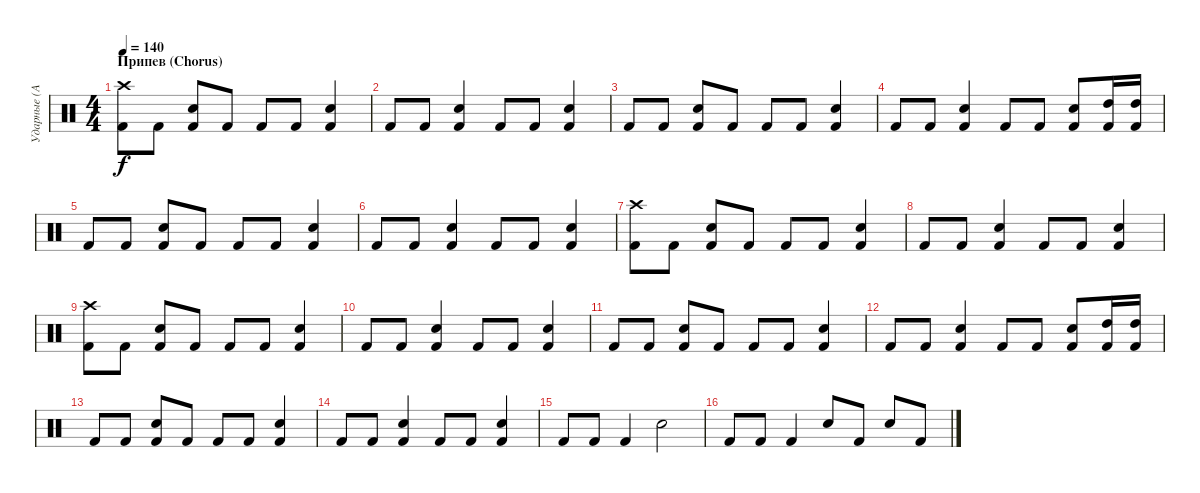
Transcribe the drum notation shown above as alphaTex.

\track ("Ударные (Алексей Барзилович)" "Ударные (А") {instrument percussion}
\staff {score}
\articulation defaults
\ts (4 4)
\section ("" "Припев (Chorus)")
\tempo 140
\clef neutral
\ks c
("Crash high (hit)" "Kick (hit) 2").8{dy f} "Kick (hit) 2".8 ("Electric Snare (hit)" "Kick (hit) 2").8 "Kick (hit) 2".8 "Kick (hit) 2".8 "Kick (hit) 2".8 ("Electric Snare (hit)" "Kick (hit) 2").4 |
"Kick (hit) 2".8 "Kick (hit) 2".8 ("Electric Snare (hit)" "Kick (hit) 2").4 "Kick (hit) 2".8 "Kick (hit) 2".8 ("Electric Snare (hit)" "Kick (hit) 2").4 |
"Kick (hit) 2".8 "Kick (hit) 2".8 ("Electric Snare (hit)" "Kick (hit) 2").8 "Kick (hit) 2".8 "Kick (hit) 2".8 "Kick (hit) 2".8 ("Electric Snare (hit)" "Kick (hit) 2").4 |
"Kick (hit) 2".8 "Kick (hit) 2".8 ("Electric Snare (hit)" "Kick (hit) 2").4 "Kick (hit) 2".8 "Kick (hit) 2".8 ("Electric Snare (hit)" "Kick (hit) 2").8 ("High Tom (hit)" "Kick (hit) 2").16 ("High Tom (hit)" "Kick (hit) 2").16 |
"Kick (hit) 2".8 "Kick (hit) 2".8 ("Electric Snare (hit)" "Kick (hit) 2").8 "Kick (hit) 2".8 "Kick (hit) 2".8 "Kick (hit) 2".8 ("Electric Snare (hit)" "Kick (hit) 2").4 |
"Kick (hit) 2".8 "Kick (hit) 2".8 ("Electric Snare (hit)" "Kick (hit) 2").4 "Kick (hit) 2".8 "Kick (hit) 2".8 ("Electric Snare (hit)" "Kick (hit) 2").4 |
("Crash high (hit)" "Kick (hit) 2").8 "Kick (hit) 2".8 ("Electric Snare (hit)" "Kick (hit) 2").8 "Kick (hit) 2".8 "Kick (hit) 2".8 "Kick (hit) 2".8 ("Electric Snare (hit)" "Kick (hit) 2").4 |
"Kick (hit) 2".8 "Kick (hit) 2".8 ("Electric Snare (hit)" "Kick (hit) 2").4 "Kick (hit) 2".8 "Kick (hit) 2".8 ("Electric Snare (hit)" "Kick (hit) 2").4 |
("Crash high (hit)" "Kick (hit) 2").8 "Kick (hit) 2".8 ("Electric Snare (hit)" "Kick (hit) 2").8 "Kick (hit) 2".8 "Kick (hit) 2".8 "Kick (hit) 2".8 ("Electric Snare (hit)" "Kick (hit) 2").4 |
"Kick (hit) 2".8 "Kick (hit) 2".8 ("Electric Snare (hit)" "Kick (hit) 2").4 "Kick (hit) 2".8 "Kick (hit) 2".8 ("Electric Snare (hit)" "Kick (hit) 2").4 |
"Kick (hit) 2".8 "Kick (hit) 2".8 ("Electric Snare (hit)" "Kick (hit) 2").8 "Kick (hit) 2".8 "Kick (hit) 2".8 "Kick (hit) 2".8 ("Electric Snare (hit)" "Kick (hit) 2").4 |
"Kick (hit) 2".8 "Kick (hit) 2".8 ("Electric Snare (hit)" "Kick (hit) 2").4 "Kick (hit) 2".8 "Kick (hit) 2".8 ("Electric Snare (hit)" "Kick (hit) 2").8 ("High Tom (hit)" "Kick (hit) 2").16 ("High Tom (hit)" "Kick (hit) 2").16 |
"Kick (hit) 2".8 "Kick (hit) 2".8 ("Electric Snare (hit)" "Kick (hit) 2").8 "Kick (hit) 2".8 "Kick (hit) 2".8 "Kick (hit) 2".8 ("Electric Snare (hit)" "Kick (hit) 2").4 |
"Kick (hit) 2".8 "Kick (hit) 2".8 ("Electric Snare (hit)" "Kick (hit) 2").4 "Kick (hit) 2".8 "Kick (hit) 2".8 ("Electric Snare (hit)" "Kick (hit) 2").4 |
"Kick (hit) 2".8 "Kick (hit) 2".8 "Kick (hit) 2".4 "Electric Snare (hit)".2 |
"Kick (hit) 2".8 "Kick (hit) 2".8 "Kick (hit) 2".4 "Electric Snare (hit)".8 "Kick (hit) 2".8 "Electric Snare (hit)".8 "Kick (hit) 2".8
